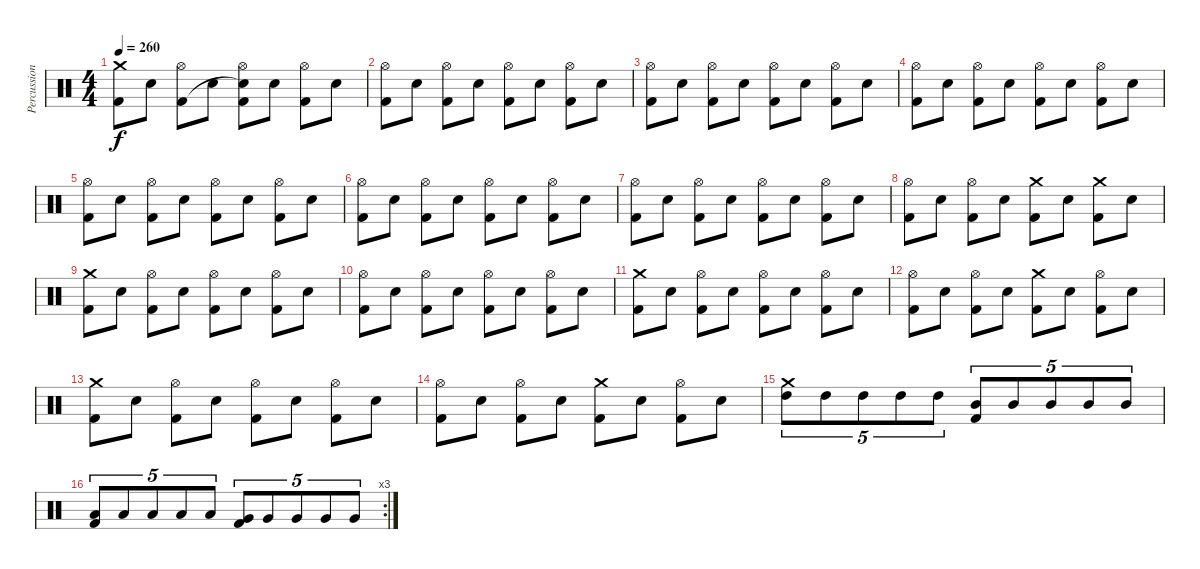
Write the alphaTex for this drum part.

\track ("Percussion" "Percussion") {instrument percussion}
\staff {score}
\articulation defaults
\ts (4 4)
\tempo 260
\clef neutral
\ks c
("Crash medium (hit)" "Kick (hit) 2").8{dy f} "Snare (hit) 2".8 ("Hi-Hat (open)" "Kick (hit) 2").8 "Snare (hit) 2".8 ("Hi-Hat (open)" "Snare (hit)"{t} "Kick (hit) 2").8 "Snare (hit) 2".8 ("Hi-Hat (open)" "Kick (hit) 2").8 "Snare (hit) 2".8 |
("Hi-Hat (open)" "Kick (hit) 2").8 "Snare (hit) 2".8 ("Hi-Hat (open)" "Kick (hit) 2").8 "Snare (hit) 2".8 ("Hi-Hat (open)" "Kick (hit) 2").8 "Snare (hit) 2".8 ("Hi-Hat (open)" "Kick (hit) 2").8 "Snare (hit) 2".8 |
("Hi-Hat (open)" "Kick (hit) 2").8 "Snare (hit) 2".8 ("Hi-Hat (open)" "Kick (hit) 2").8 "Snare (hit) 2".8 ("Hi-Hat (open)" "Kick (hit) 2").8 "Snare (hit) 2".8 ("Hi-Hat (open)" "Kick (hit) 2").8 "Snare (hit) 2".8 |
("Hi-Hat (open)" "Kick (hit) 2").8 "Snare (hit) 2".8 ("Hi-Hat (open)" "Kick (hit) 2").8 "Snare (hit) 2".8 ("Hi-Hat (open)" "Kick (hit) 2").8 "Snare (hit) 2".8 ("Hi-Hat (open)" "Kick (hit) 2").8 "Snare (hit) 2".8 |
("Hi-Hat (open)" "Kick (hit) 2").8 "Snare (hit) 2".8 ("Hi-Hat (open)" "Kick (hit) 2").8 "Snare (hit) 2".8 ("Hi-Hat (open)" "Kick (hit) 2").8 "Snare (hit) 2".8 ("Hi-Hat (open)" "Kick (hit) 2").8 "Snare (hit) 2".8 |
("Hi-Hat (open)" "Kick (hit) 2").8 "Snare (hit) 2".8 ("Hi-Hat (open)" "Kick (hit) 2").8 "Snare (hit) 2".8 ("Hi-Hat (open)" "Kick (hit) 2").8 "Snare (hit) 2".8 ("Hi-Hat (open)" "Kick (hit) 2").8 "Snare (hit) 2".8 |
("Hi-Hat (open)" "Kick (hit) 2").8 "Snare (hit) 2".8 ("Hi-Hat (open)" "Kick (hit) 2").8 "Snare (hit) 2".8 ("Hi-Hat (open)" "Kick (hit) 2").8 "Snare (hit) 2".8 ("Hi-Hat (open)" "Kick (hit) 2").8 "Snare (hit) 2".8 |
("Hi-Hat (open)" "Kick (hit) 2").8 "Snare (hit) 2".8 ("Hi-Hat (open)" "Kick (hit) 2").8 "Snare (hit) 2".8 ("Crash medium (hit)" "Kick (hit) 2").8 "Snare (hit) 2".8 ("Crash medium (hit)" "Kick (hit) 2").8 "Snare (hit) 2".8 |
("Crash medium (hit)" "Kick (hit) 2").8 "Snare (hit) 2".8 ("Hi-Hat (open)" "Kick (hit) 2").8 "Snare (hit) 2".8 ("Hi-Hat (open)" "Kick (hit) 2").8 "Snare (hit) 2".8 ("Hi-Hat (open)" "Kick (hit) 2").8 "Snare (hit) 2".8 |
("Hi-Hat (open)" "Kick (hit) 2").8 "Snare (hit) 2".8 ("Hi-Hat (open)" "Kick (hit) 2").8 "Snare (hit) 2".8 ("Hi-Hat (open)" "Kick (hit) 2").8 "Snare (hit) 2".8 ("Hi-Hat (open)" "Kick (hit) 2").8 "Snare (hit) 2".8 |
("Crash medium (hit)" "Kick (hit) 2").8 "Snare (hit) 2".8 ("Hi-Hat (open)" "Kick (hit) 2").8 "Snare (hit) 2".8 ("Hi-Hat (open)" "Kick (hit) 2").8 "Snare (hit) 2".8 ("Hi-Hat (open)" "Kick (hit) 2").8 "Snare (hit) 2".8 |
("Hi-Hat (open)" "Kick (hit) 2").8 "Snare (hit) 2".8 ("Hi-Hat (open)" "Kick (hit) 2").8 "Snare (hit) 2".8 ("Crash medium (hit)" "Kick (hit) 2").8 "Snare (hit) 2".8 ("Hi-Hat (open)" "Kick (hit) 2").8 "Snare (hit) 2".8 |
("Crash medium (hit)" "Kick (hit) 2").8 "Snare (hit) 2".8 ("Hi-Hat (open)" "Kick (hit) 2").8 "Snare (hit) 2".8 ("Hi-Hat (open)" "Kick (hit) 2").8 "Snare (hit) 2".8 ("Hi-Hat (open)" "Kick (hit) 2").8 "Snare (hit) 2".8 |
("Hi-Hat (open)" "Kick (hit) 2").8 "Snare (hit) 2".8 ("Hi-Hat (open)" "Kick (hit) 2").8 "Snare (hit) 2".8 ("Crash medium (hit)" "Kick (hit) 2").8 "Snare (hit) 2".8 ("Hi-Hat (open)" "Kick (hit) 2").8 "Snare (hit) 2".8 |
("High Tom (hit)" "Crash medium (hit)").8{tu (5 4)} "High Tom (hit)".8{tu (5 4)} "High Tom (hit)".8{tu (5 4)} "High Tom (hit)".8{tu (5 4)} "High Tom (hit)".8{tu (5 4)} ("Mid Tom (hit)" "Kick (hit) 2").8{tu (5 4)} "Mid Tom (hit)".8{tu (5 4)} "Mid Tom (hit)".8{tu (5 4)} "Mid Tom (hit)".8{tu (5 4)} "Mid Tom (hit)".8{tu (5 4)} |
\rc 3
("Low Tom (hit)" "Kick (hit) 2").8{tu (5 4)} "Low Tom (hit)".8{tu (5 4)} "Low Tom (hit)".8{tu (5 4)} "Low Tom (hit)".8{tu (5 4)} "Low Tom (hit)".8{tu (5 4)} ("Very Low Tom (hit)" "Kick (hit) 2").8{tu (5 4)} "Very Low Tom (hit)".8{tu (5 4)} "Very Low Tom (hit)".8{tu (5 4)} "Very Low Tom (hit)".8{tu (5 4)} "Very Low Tom (hit)".8{tu (5 4)}
